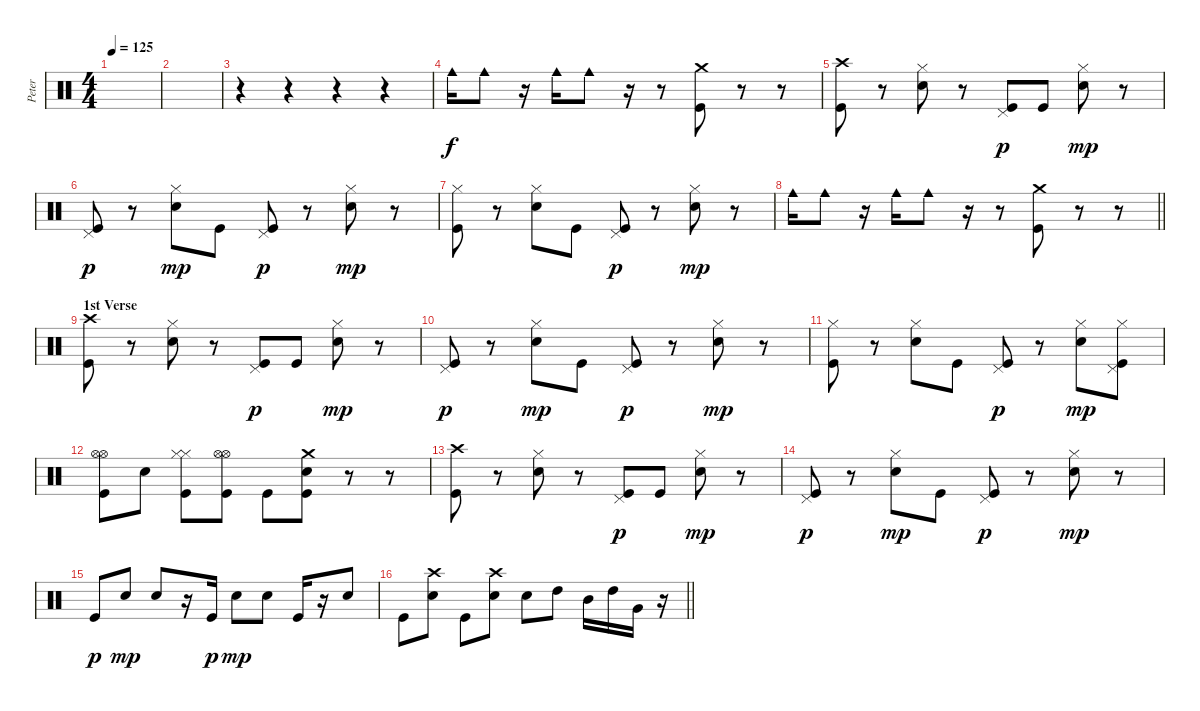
\track ("Peter" "Peter") {instrument percussion}
\staff {score}
\articulation defaults
\ts (4 4)
\tempo 125
\clef neutral
\ks c
|
|
r.4 r.4 r.4 r.4 |
"Cowbell medium (hit)".16 "Cowbell medium (hit)".8 r.16 "Cowbell medium (hit)".16 "Cowbell medium (hit)".8 r.16 r.8 ("Crash medium (hit)" "Kick (hit)").8 r.8 r.8 |
("Crash high (hit)" "Kick (hit)").8 r.8 ("Hi-Hat (closed)" "Snare (hit) 2").8 r.8 ("Pedal Hi-Hat (hit)" "Kick (hit)").8{dy p} "Kick (hit)".8 ("Hi-Hat (closed)" "Snare (hit) 2").8{dy mp} r.8 |
("Pedal Hi-Hat (hit)" "Kick (hit)").8{dy p} r.8 ("Hi-Hat (closed)" "Snare (hit) 2").8{dy mp} "Kick (hit)".8 ("Pedal Hi-Hat (hit)" "Kick (hit)").8{dy p} r.8 ("Hi-Hat (closed)" "Snare (hit) 2").8{dy mp} r.8 |
("Hi-Hat (closed)" "Kick (hit)").8 r.8 ("Hi-Hat (closed)" "Snare (hit) 2").8 "Kick (hit)".8 ("Pedal Hi-Hat (hit)" "Kick (hit)").8{dy p} r.8 ("Hi-Hat (closed)" "Snare (hit) 2").8{dy mp} r.8 |
\barLineRight lightlight "Cowbell medium (hit)".16 "Cowbell medium (hit)".8
r.16 "Cowbell medium (hit)".16 "Cowbell medium (hit)".8 r.16 r.8 ("Crash medium (hit)" "Kick (hit)").8 r.8 r.8 |
\section ("" "1st Verse")
("Crash high (hit)" "Kick (hit)").8 r.8 ("Hi-Hat (closed)" "Snare (hit) 2").8 r.8 ("Pedal Hi-Hat (hit)" "Kick (hit)").8{dy p} "Kick (hit)".8 ("Hi-Hat (closed)" "Snare (hit) 2").8{dy mp} r.8 |
("Pedal Hi-Hat (hit)" "Kick (hit)").8{dy p} r.8 ("Hi-Hat (closed)" "Snare (hit) 2").8{dy mp} "Kick (hit)".8 ("Pedal Hi-Hat (hit)" "Kick (hit)").8{dy p} r.8 ("Hi-Hat (closed)" "Snare (hit) 2").8{dy mp} r.8 |
("Hi-Hat (closed)" "Kick (hit)").8 r.8 ("Hi-Hat (closed)" "Snare (hit) 2").8 "Kick (hit)".8 ("Pedal Hi-Hat (hit)" "Kick (hit)").8{dy p} r.8 ("Hi-Hat (closed)" "Snare (hit) 2").8{dy mp} ("Hi-Hat (closed)" "Pedal Hi-Hat (hit)" "Kick (hit)").8 |
("Hi-Hat (open)" "Hi-Hat (open)" "Kick (hit)").8 "Snare (hit) 2".8 ("Hi-Hat (closed)" "Hi-Hat (closed)" "Kick (hit)").8 ("Hi-Hat (open)" "Hi-Hat (open)" "Kick (hit)").8 "Kick (hit)".8 ("Crash medium (hit)" "Snare (hit) 2" "Kick (hit)").8 r.8 r.8 |
("Crash high (hit)" "Kick (hit)").8 r.8 ("Hi-Hat (closed)" "Snare (hit) 2").8 r.8 ("Pedal Hi-Hat (hit)" "Kick (hit)").8{dy p} "Kick (hit)".8 ("Hi-Hat (closed)" "Snare (hit) 2").8{dy mp} r.8 |
("Pedal Hi-Hat (hit)" "Kick (hit)").8{dy p} r.8 ("Hi-Hat (closed)" "Snare (hit) 2").8{dy mp} "Kick (hit)".8 ("Pedal Hi-Hat (hit)" "Kick (hit)").8{dy p} r.8 ("Hi-Hat (closed)" "Snare (hit) 2").8{dy mp} r.8 |
"Kick (hit)".8{dy p} "Snare (hit) 2".8{dy mp} "Snare (hit) 2".8 r.16 "Kick (hit)".16{dy p} "Snare (hit) 2".8{dy mp} "Snare (hit) 2".8 "Kick (hit)".16 r.16 "Snare (hit) 2".8 |
\barLineRight lightlight "Kick (hit)".8
("Crash high (hit)" "Snare (hit) 2").8 "Kick (hit)".8 ("Crash high (hit)" "Snare (hit) 2").8 "Snare (hit) 2".8 "High Tom (hit)".8 "Mid Tom (hit)".16 "High Tom (hit)".16 "Very Low Tom (hit)".16 r.16
